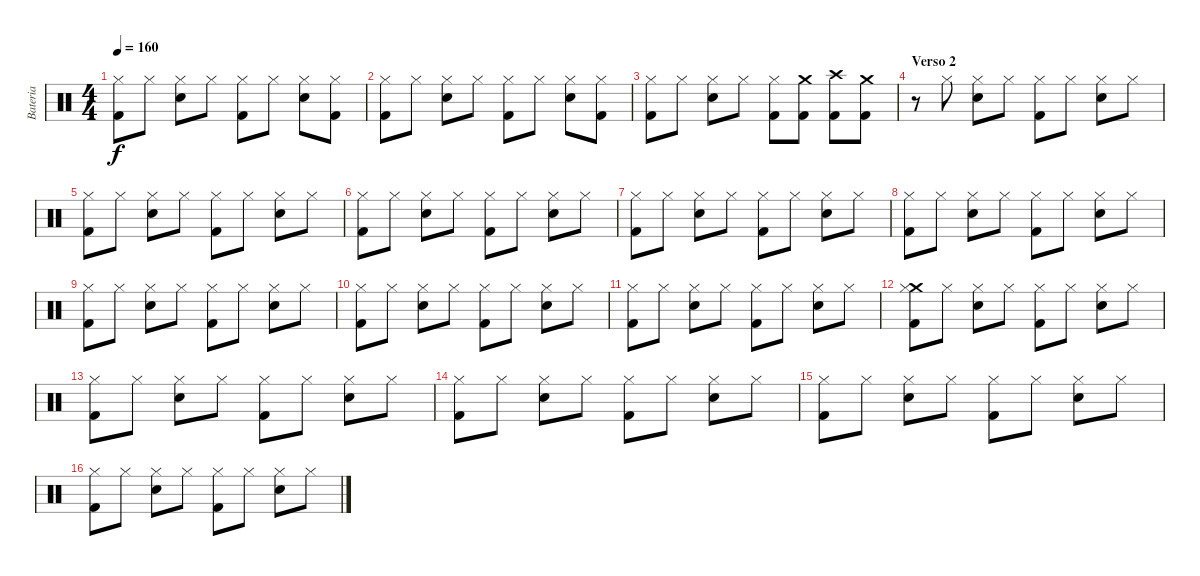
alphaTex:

\track ("Bateria" "Bateria") {instrument percussion}
\staff {score}
\articulation defaults
\ts (4 4)
\tempo 160
\clef neutral
\ks c
("Hi-Hat (closed)" "Kick (hit) 2").8{dy f} "Hi-Hat (closed)".8 ("Hi-Hat (closed)" "Electric Snare (hit)").8 "Hi-Hat (closed)".8 ("Hi-Hat (closed)" "Kick (hit) 2").8 "Hi-Hat (closed)".8 ("Hi-Hat (closed)" "Electric Snare (hit)").8 ("Hi-Hat (closed)" "Kick (hit) 2").8 |
("Hi-Hat (closed)" "Kick (hit) 2").8 "Hi-Hat (closed)".8 ("Hi-Hat (closed)" "Electric Snare (hit)").8 "Hi-Hat (closed)".8 ("Hi-Hat (closed)" "Kick (hit) 2").8 "Hi-Hat (closed)".8 ("Hi-Hat (closed)" "Electric Snare (hit)").8 ("Hi-Hat (closed)" "Kick (hit) 2").8 |
("Hi-Hat (closed)" "Kick (hit) 2").8 "Hi-Hat (closed)".8 ("Hi-Hat (closed)" "Electric Snare (hit)").8 "Hi-Hat (closed)".8 ("Hi-Hat (closed)" "Kick (hit) 2").8 ("Crash medium (hit)" "Kick (hit) 2").8 ("Crash high (hit)" "Kick (hit) 2").8 ("Crash medium (hit)" "Kick (hit) 2").8 |
\section ("" "Verso 2")
r.8 "Hi-Hat (closed)".8 ("Hi-Hat (closed)" "Electric Snare (hit)").8 "Hi-Hat (closed)".8 ("Hi-Hat (closed)" "Kick (hit) 2").8 "Hi-Hat (closed)".8 ("Hi-Hat (closed)" "Electric Snare (hit)").8 "Hi-Hat (closed)".8 |
("Hi-Hat (closed)" "Kick (hit) 2").8 "Hi-Hat (closed)".8 ("Hi-Hat (closed)" "Electric Snare (hit)").8 "Hi-Hat (closed)".8 ("Hi-Hat (closed)" "Kick (hit) 2").8 "Hi-Hat (closed)".8 ("Hi-Hat (closed)" "Electric Snare (hit)").8 "Hi-Hat (closed)".8 |
("Hi-Hat (closed)" "Kick (hit) 2").8 "Hi-Hat (closed)".8 ("Hi-Hat (closed)" "Electric Snare (hit)").8 "Hi-Hat (closed)".8 ("Hi-Hat (closed)" "Kick (hit) 2").8 "Hi-Hat (closed)".8 ("Hi-Hat (closed)" "Electric Snare (hit)").8 "Hi-Hat (closed)".8 |
("Hi-Hat (closed)" "Kick (hit) 2").8 "Hi-Hat (closed)".8 ("Hi-Hat (closed)" "Electric Snare (hit)").8 "Hi-Hat (closed)".8 ("Hi-Hat (closed)" "Kick (hit) 2").8 "Hi-Hat (closed)".8 ("Hi-Hat (closed)" "Electric Snare (hit)").8 "Hi-Hat (closed)".8 |
("Hi-Hat (closed)" "Kick (hit) 2").8 "Hi-Hat (closed)".8 ("Hi-Hat (closed)" "Electric Snare (hit)").8 "Hi-Hat (closed)".8 ("Hi-Hat (closed)" "Kick (hit) 2").8 "Hi-Hat (closed)".8 ("Hi-Hat (closed)" "Electric Snare (hit)").8 "Hi-Hat (closed)".8 |
("Hi-Hat (closed)" "Kick (hit) 2").8 "Hi-Hat (closed)".8 ("Hi-Hat (closed)" "Electric Snare (hit)").8 "Hi-Hat (closed)".8 ("Hi-Hat (closed)" "Kick (hit) 2").8 "Hi-Hat (closed)".8 ("Hi-Hat (closed)" "Electric Snare (hit)").8 "Hi-Hat (closed)".8 |
("Hi-Hat (closed)" "Kick (hit) 2").8 "Hi-Hat (closed)".8 ("Hi-Hat (closed)" "Electric Snare (hit)").8 "Hi-Hat (closed)".8 ("Hi-Hat (closed)" "Kick (hit) 2").8 "Hi-Hat (closed)".8 ("Hi-Hat (closed)" "Electric Snare (hit)").8 "Hi-Hat (closed)".8 |
("Hi-Hat (closed)" "Kick (hit) 2").8 "Hi-Hat (closed)".8 ("Hi-Hat (closed)" "Electric Snare (hit)").8 "Hi-Hat (closed)".8 ("Hi-Hat (closed)" "Kick (hit) 2").8 "Hi-Hat (closed)".8 ("Hi-Hat (closed)" "Electric Snare (hit)").8 "Hi-Hat (closed)".8 |
("Crash medium (hit)" "Hi-Hat (closed)" "Kick (hit) 2").8 "Hi-Hat (closed)".8 ("Hi-Hat (closed)" "Electric Snare (hit)").8 "Hi-Hat (closed)".8 ("Hi-Hat (closed)" "Kick (hit) 2").8 "Hi-Hat (closed)".8 ("Hi-Hat (closed)" "Electric Snare (hit)").8 "Hi-Hat (closed)".8 |
("Hi-Hat (closed)" "Kick (hit) 2").8 "Hi-Hat (closed)".8 ("Hi-Hat (closed)" "Electric Snare (hit)").8 "Hi-Hat (closed)".8 ("Hi-Hat (closed)" "Kick (hit) 2").8 "Hi-Hat (closed)".8 ("Hi-Hat (closed)" "Electric Snare (hit)").8 "Hi-Hat (closed)".8 |
("Hi-Hat (closed)" "Kick (hit) 2").8 "Hi-Hat (closed)".8 ("Hi-Hat (closed)" "Electric Snare (hit)").8 "Hi-Hat (closed)".8 ("Hi-Hat (closed)" "Kick (hit) 2").8 "Hi-Hat (closed)".8 ("Hi-Hat (closed)" "Electric Snare (hit)").8 "Hi-Hat (closed)".8 |
("Hi-Hat (closed)" "Kick (hit) 2").8 "Hi-Hat (closed)".8 ("Hi-Hat (closed)" "Electric Snare (hit)").8 "Hi-Hat (closed)".8 ("Hi-Hat (closed)" "Kick (hit) 2").8 "Hi-Hat (closed)".8 ("Hi-Hat (closed)" "Electric Snare (hit)").8 "Hi-Hat (closed)".8 |
("Hi-Hat (closed)" "Kick (hit) 2").8 "Hi-Hat (closed)".8 ("Hi-Hat (closed)" "Electric Snare (hit)").8 "Hi-Hat (closed)".8 ("Hi-Hat (closed)" "Kick (hit) 2").8 "Hi-Hat (closed)".8 ("Hi-Hat (closed)" "Electric Snare (hit)").8 "Hi-Hat (closed)".8
